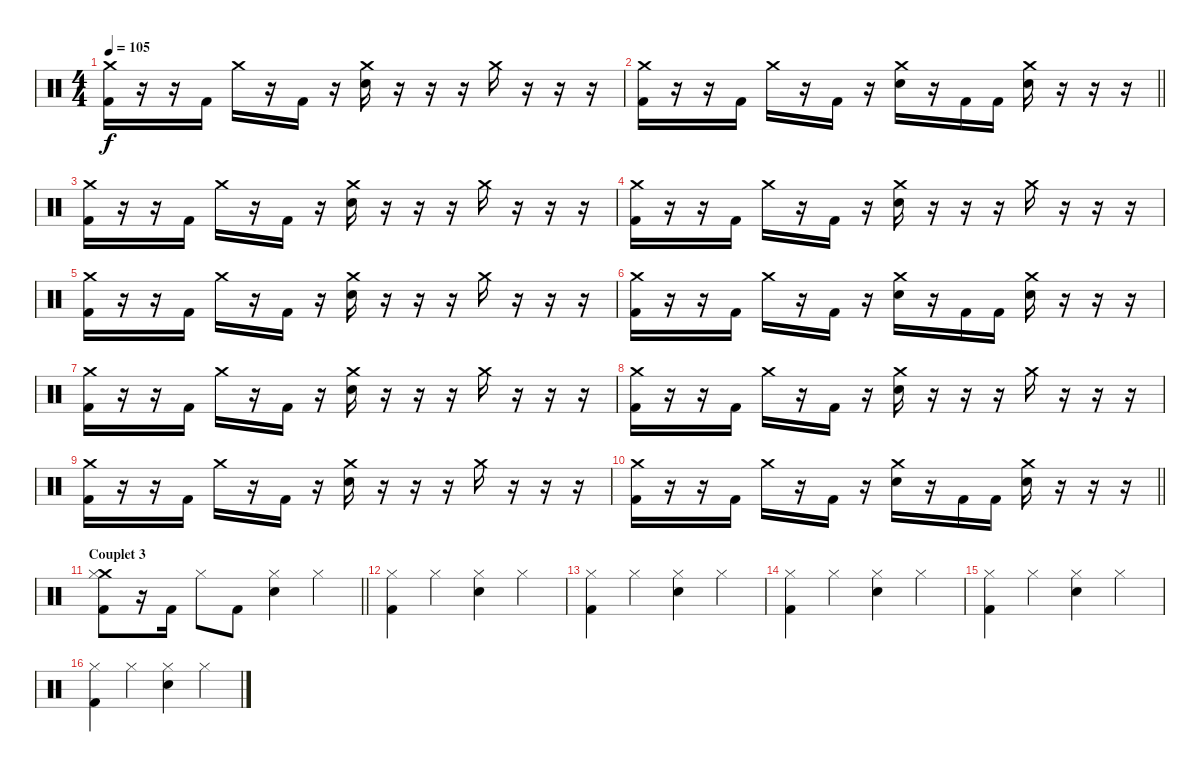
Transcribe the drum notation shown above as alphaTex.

\track "" {instrument percussion}
\staff {score}
\articulation defaults
\ts (4 4)
\tempo 105
\clef neutral
\ks c
("Crash medium (hit)" "Kick (hit) 2").16{dy f} r.16 r.16 "Kick (hit) 2".16 "Crash medium (hit)".16 r.16 "Kick (hit) 2".16 r.16 ("Crash medium (hit)" "Snare (hit) 2").16 r.16 r.16 r.16 "Crash medium (hit)".16 r.16 r.16 r.16 |
\barLineRight lightlight
("Crash medium (hit)" "Kick (hit) 2").16 r.16 r.16 "Kick (hit) 2".16 "Crash medium (hit)".16 r.16 "Kick (hit) 2".16 r.16 ("Crash medium (hit)" "Snare (hit) 2").16 r.16 "Kick (hit) 2".16 "Kick (hit) 2".16 ("Crash medium (hit)" "Snare (hit) 2").16 r.16 r.16 r.16 |
("Crash medium (hit)" "Kick (hit) 2").16 r.16 r.16 "Kick (hit) 2".16 "Crash medium (hit)".16 r.16 "Kick (hit) 2".16 r.16 ("Crash medium (hit)" "Snare (hit) 2").16 r.16 r.16 r.16 "Crash medium (hit)".16 r.16 r.16 r.16 |
("Crash medium (hit)" "Kick (hit) 2").16 r.16 r.16 "Kick (hit) 2".16 "Crash medium (hit)".16 r.16 "Kick (hit) 2".16 r.16 ("Crash medium (hit)" "Snare (hit) 2").16 r.16 r.16 r.16 "Crash medium (hit)".16 r.16 r.16 r.16 |
("Crash medium (hit)" "Kick (hit) 2").16 r.16 r.16 "Kick (hit) 2".16 "Crash medium (hit)".16 r.16 "Kick (hit) 2".16 r.16 ("Crash medium (hit)" "Snare (hit) 2").16 r.16 r.16 r.16 "Crash medium (hit)".16 r.16 r.16 r.16 |
("Crash medium (hit)" "Kick (hit) 2").16 r.16 r.16 "Kick (hit) 2".16 "Crash medium (hit)".16 r.16 "Kick (hit) 2".16 r.16 ("Crash medium (hit)" "Snare (hit) 2").16 r.16 "Kick (hit) 2".16 "Kick (hit) 2".16 ("Crash medium (hit)" "Snare (hit) 2").16 r.16 r.16 r.16 |
("Crash medium (hit)" "Kick (hit) 2").16 r.16 r.16 "Kick (hit) 2".16 "Crash medium (hit)".16 r.16 "Kick (hit) 2".16 r.16 ("Crash medium (hit)" "Snare (hit) 2").16 r.16 r.16 r.16 "Crash medium (hit)".16 r.16 r.16 r.16 |
("Crash medium (hit)" "Kick (hit) 2").16 r.16 r.16 "Kick (hit) 2".16 "Crash medium (hit)".16 r.16 "Kick (hit) 2".16 r.16 ("Crash medium (hit)" "Snare (hit) 2").16 r.16 r.16 r.16 "Crash medium (hit)".16 r.16 r.16 r.16 |
("Crash medium (hit)" "Kick (hit) 2").16 r.16 r.16 "Kick (hit) 2".16 "Crash medium (hit)".16 r.16 "Kick (hit) 2".16 r.16 ("Crash medium (hit)" "Snare (hit) 2").16 r.16 r.16 r.16 "Crash medium (hit)".16 r.16 r.16 r.16 |
\barLineRight lightlight
("Crash medium (hit)" "Kick (hit) 2").16 r.16 r.16 "Kick (hit) 2".16 "Crash medium (hit)".16 r.16 "Kick (hit) 2".16 r.16 ("Crash medium (hit)" "Snare (hit) 2").16 r.16 "Kick (hit) 2".16 "Kick (hit) 2".16 ("Crash medium (hit)" "Snare (hit) 2").16 r.16 r.16 r.16 |
\section ("" "Couplet 3")
\barLineRight lightlight
("Crash medium (hit)" "Hi-Hat (closed)" "Kick (hit) 2").8 r.16 "Kick (hit) 2".16 "Hi-Hat (closed)".8 "Kick (hit) 2".8 ("Hi-Hat (closed)" "Snare (hit) 2").4 "Hi-Hat (closed)".4 |
("Hi-Hat (closed)" "Kick (hit) 2").4 "Hi-Hat (closed)".4 ("Hi-Hat (closed)" "Snare (hit) 2").4 "Hi-Hat (closed)".4 |
("Hi-Hat (closed)" "Kick (hit) 2").4 "Hi-Hat (closed)".4 ("Hi-Hat (closed)" "Snare (hit) 2").4 "Hi-Hat (closed)".4 |
("Hi-Hat (closed)" "Kick (hit) 2").4 "Hi-Hat (closed)".4 ("Hi-Hat (closed)" "Snare (hit) 2").4 "Hi-Hat (closed)".4 |
("Hi-Hat (closed)" "Kick (hit) 2").4 "Hi-Hat (closed)".4 ("Hi-Hat (closed)" "Snare (hit) 2").4 "Hi-Hat (closed)".4 |
("Hi-Hat (closed)" "Kick (hit) 2").4 "Hi-Hat (closed)".4 ("Hi-Hat (closed)" "Snare (hit) 2").4 "Hi-Hat (closed)".4
